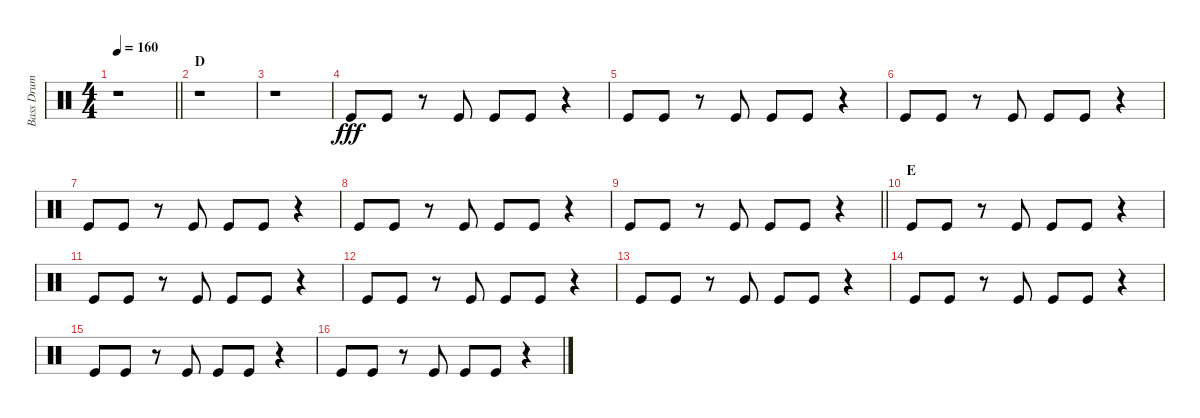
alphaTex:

\track ("Bass Drum" "Bass Drum") {instrument percussion}
\staff {score}
\articulation defaults
\ts (4 4)
\tempo 160
\clef neutral
\barLineRight lightlight
\ks c
r.1{dy fff} |
\section ("" "D")
r.1 |
r.1 |
"Kick (hit)".8 "Kick (hit)".8 r.8 "Kick (hit)".8 "Kick (hit)".8 "Kick (hit)".8 r.4 |
"Kick (hit)".8 "Kick (hit)".8 r.8 "Kick (hit)".8 "Kick (hit)".8 "Kick (hit)".8 r.4 |
"Kick (hit)".8 "Kick (hit)".8 r.8 "Kick (hit)".8 "Kick (hit)".8 "Kick (hit)".8 r.4 |
"Kick (hit)".8 "Kick (hit)".8 r.8 "Kick (hit)".8 "Kick (hit)".8 "Kick (hit)".8 r.4 |
"Kick (hit)".8 "Kick (hit)".8 r.8 "Kick (hit)".8 "Kick (hit)".8 "Kick (hit)".8 r.4 |
\barLineRight lightlight "Kick (hit)".8 "Kick (hit)".8
r.8 "Kick (hit)".8 "Kick (hit)".8 "Kick (hit)".8 r.4 |
\section ("" "E")
"Kick (hit)".8 "Kick (hit)".8 r.8 "Kick (hit)".8 "Kick (hit)".8 "Kick (hit)".8 r.4 |
"Kick (hit)".8 "Kick (hit)".8 r.8 "Kick (hit)".8 "Kick (hit)".8 "Kick (hit)".8 r.4 |
"Kick (hit)".8 "Kick (hit)".8 r.8 "Kick (hit)".8 "Kick (hit)".8 "Kick (hit)".8 r.4 |
"Kick (hit)".8 "Kick (hit)".8 r.8 "Kick (hit)".8 "Kick (hit)".8 "Kick (hit)".8 r.4 |
"Kick (hit)".8 "Kick (hit)".8 r.8 "Kick (hit)".8 "Kick (hit)".8 "Kick (hit)".8 r.4 |
"Kick (hit)".8 "Kick (hit)".8 r.8 "Kick (hit)".8 "Kick (hit)".8 "Kick (hit)".8 r.4 |
"Kick (hit)".8 "Kick (hit)".8 r.8 "Kick (hit)".8 "Kick (hit)".8 "Kick (hit)".8 r.4
